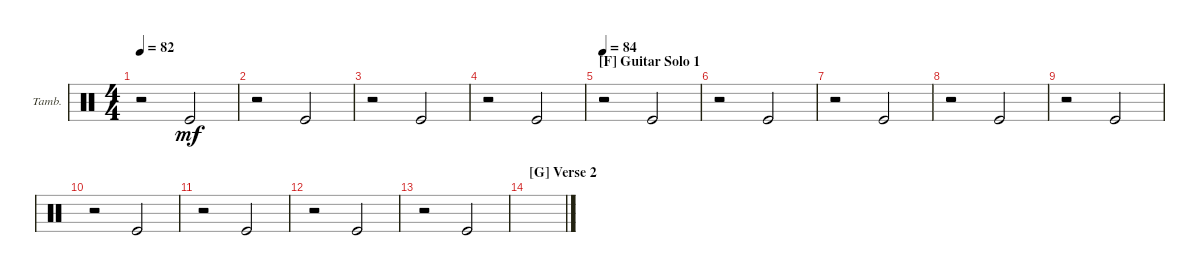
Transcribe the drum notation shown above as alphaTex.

\defaultSystemsLayout 4
\bracketExtendMode groupsimilarinstruments
\firstSystemTrackNameOrientation horizontal
\otherSystemsTrackNameOrientation horizontal
\track ("Tambourine" "Tamb.") {instrument percussion}
\staff {score}
\articulation defaults
\ts (4 4)
\tempo 82
\clef neutral
\ks c
r.2{dy mf} "Kick (hit)".2 |
r.2 "Kick (hit)".2 |
r.2 "Kick (hit)".2 |
r.2 "Kick (hit)".2 |
\section ("F" "Guitar Solo 1")
\tempo 84
r.2 "Kick (hit)".2 |
r.2 "Kick (hit)".2 |
r.2 "Kick (hit)".2 |
r.2 "Kick (hit)".2 |
r.2 "Kick (hit)".2 |
r.2 "Kick (hit)".2 |
r.2 "Kick (hit)".2 |
r.2 "Kick (hit)".2 |
r.2 "Kick (hit)".2 |
\section ("G" "Verse 2")
